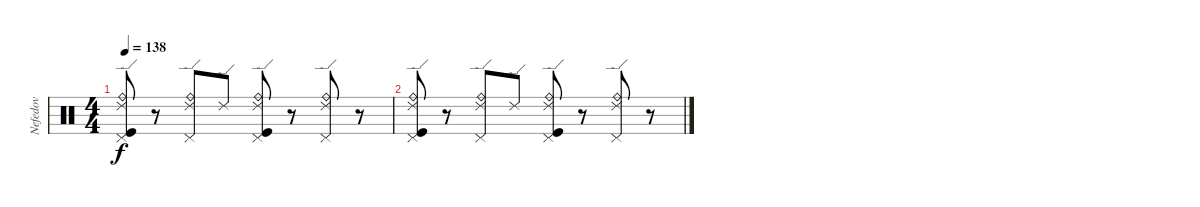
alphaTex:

\track ("Nefedov" "Nefedov") {instrument percussion}
\staff {score}
\articulation defaults
\ts (4 4)
\tempo 138
\clef neutral
\ks c
("Pedal Hi-Hat (hit)" "Ride (edge) 2" "Kick (hit)" "Ride (bell)").8{dy f} r.8 ("Pedal Hi-Hat (hit)" "Ride (edge) 2" "Ride (bell)").8 "Ride (edge) 2".8 ("Pedal Hi-Hat (hit)" "Ride (edge) 2" "Kick (hit)" "Ride (bell)").8 r.8 ("Pedal Hi-Hat (hit)" "Ride (edge) 2" "Ride (bell)").8 r.8 |
("Pedal Hi-Hat (hit)" "Ride (edge) 2" "Kick (hit)" "Ride (bell)").8 r.8 ("Pedal Hi-Hat (hit)" "Ride (edge) 2" "Ride (bell)").8 "Ride (edge) 2".8 ("Pedal Hi-Hat (hit)" "Ride (edge) 2" "Kick (hit)" "Ride (bell)").8 r.8 ("Pedal Hi-Hat (hit)" "Ride (edge) 2" "Ride (bell)").8 r.8
